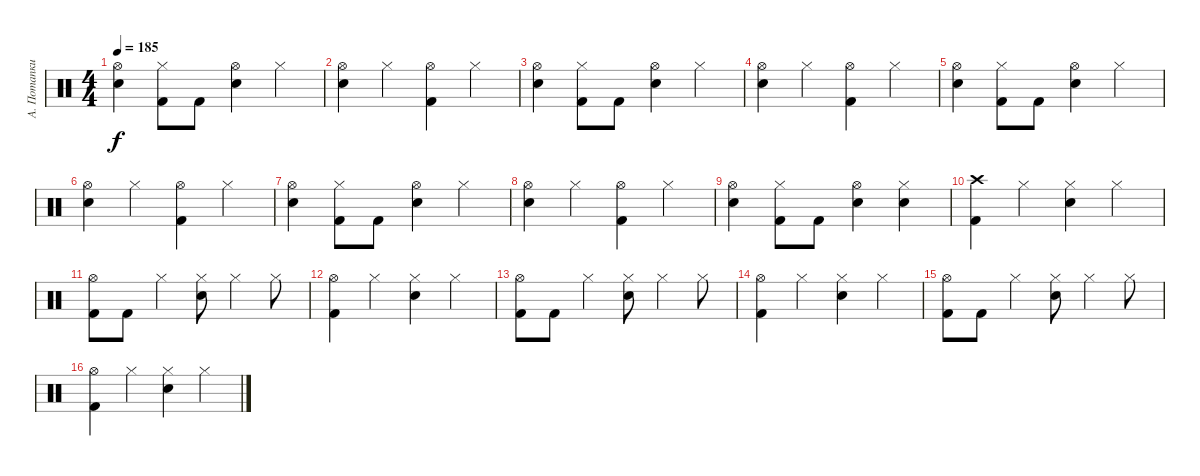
\track ("А. Потапкин" "А. Потапки") {instrument percussion}
\staff {score}
\articulation defaults
\ts (4 4)
\tempo 185
\clef neutral
\ks c
("Hi-Hat (open)" "Snare (hit) 2").4{dy f} ("Hi-Hat (closed)" "Kick (hit) 2").8 "Kick (hit) 2".8 ("Hi-Hat (open)" "Snare (hit) 2").4 "Hi-Hat (closed)".4 |
("Hi-Hat (open)" "Snare (hit) 2").4 "Hi-Hat (closed)".4 ("Hi-Hat (open)" "Kick (hit) 2").4 "Hi-Hat (closed)".4 |
("Hi-Hat (open)" "Snare (hit) 2").4 ("Hi-Hat (closed)" "Kick (hit) 2").8 "Kick (hit) 2".8 ("Hi-Hat (open)" "Snare (hit) 2").4 "Hi-Hat (closed)".4 |
("Hi-Hat (open)" "Snare (hit) 2").4 "Hi-Hat (closed)".4 ("Hi-Hat (open)" "Kick (hit) 2").4 "Hi-Hat (closed)".4 |
("Hi-Hat (open)" "Snare (hit) 2").4 ("Hi-Hat (closed)" "Kick (hit) 2").8 "Kick (hit) 2".8 ("Hi-Hat (open)" "Snare (hit) 2").4 "Hi-Hat (closed)".4 |
("Hi-Hat (open)" "Snare (hit) 2").4 "Hi-Hat (closed)".4 ("Hi-Hat (open)" "Kick (hit) 2").4 "Hi-Hat (closed)".4 |
("Hi-Hat (open)" "Snare (hit) 2").4 ("Hi-Hat (closed)" "Kick (hit) 2").8 "Kick (hit) 2".8 ("Hi-Hat (open)" "Snare (hit) 2").4 "Hi-Hat (closed)".4 |
("Hi-Hat (open)" "Snare (hit) 2").4 "Hi-Hat (closed)".4 ("Hi-Hat (open)" "Kick (hit) 2").4 "Hi-Hat (closed)".4 |
("Hi-Hat (open)" "Snare (hit) 2").4 ("Hi-Hat (closed)" "Kick (hit) 2").8 "Kick (hit) 2".8 ("Hi-Hat (open)" "Snare (hit) 2").4 ("Hi-Hat (closed)" "Snare (hit) 2").4 |
("Crash high (hit)" "Kick (hit) 2").4 "Hi-Hat (closed)".4 ("Hi-Hat (closed)" "Snare (hit) 2").4 "Hi-Hat (closed)".4 |
("Hi-Hat (open)" "Kick (hit) 2").8 "Kick (hit) 2".8 "Hi-Hat (closed)".4 ("Hi-Hat (closed)" "Snare (hit) 2").8 "Hi-Hat (closed)".4 "Hi-Hat (closed)".8 |
("Hi-Hat (open)" "Kick (hit) 2").4 "Hi-Hat (closed)".4 ("Hi-Hat (closed)" "Snare (hit) 2").4 "Hi-Hat (closed)".4 |
("Hi-Hat (open)" "Kick (hit) 2").8 "Kick (hit) 2".8 "Hi-Hat (closed)".4 ("Hi-Hat (closed)" "Snare (hit) 2").8 "Hi-Hat (closed)".4 "Hi-Hat (closed)".8 |
("Hi-Hat (open)" "Kick (hit) 2").4 "Hi-Hat (closed)".4 ("Hi-Hat (closed)" "Snare (hit) 2").4 "Hi-Hat (closed)".4 |
("Hi-Hat (open)" "Kick (hit) 2").8 "Kick (hit) 2".8 "Hi-Hat (closed)".4 ("Hi-Hat (closed)" "Snare (hit) 2").8 "Hi-Hat (closed)".4 "Hi-Hat (closed)".8 |
("Hi-Hat (open)" "Kick (hit) 2").4 "Hi-Hat (closed)".4 ("Hi-Hat (closed)" "Snare (hit) 2").4 "Hi-Hat (closed)".4
